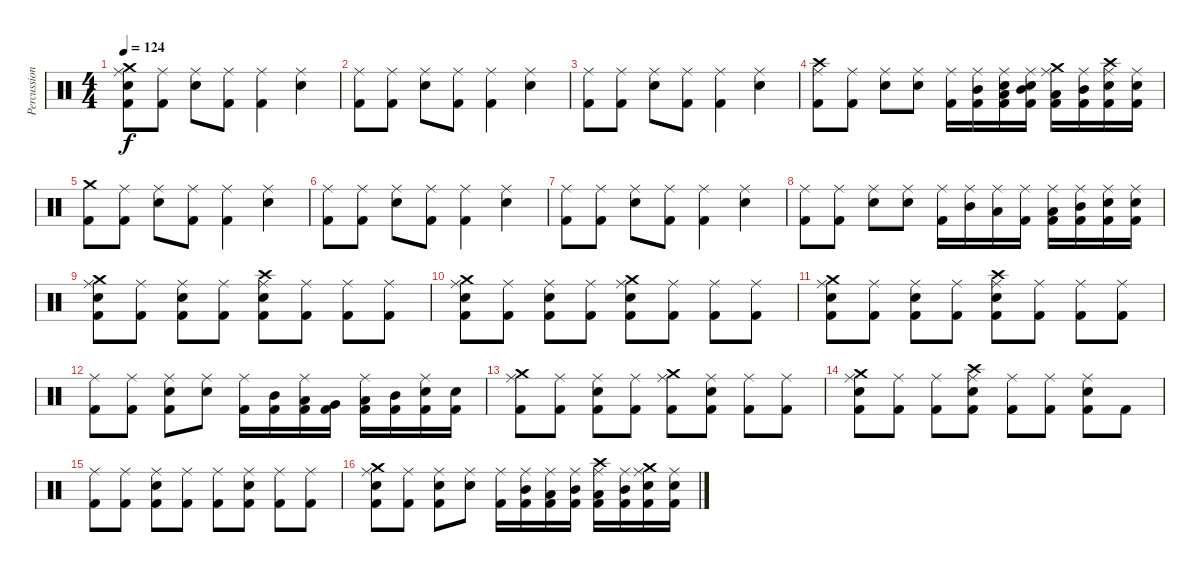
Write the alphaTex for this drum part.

\track ("Percussions" "Percussion") {instrument percussion}
\staff {score}
\articulation defaults
\ts (4 4)
\tempo 124
\clef neutral
\ks c
("Kick (hit) 2" "Electric Snare (hit)" "Crash medium (hit)" "Ride (middle)").8{dy f} ("Kick (hit) 2" "Ride (middle)").8 ("Electric Snare (hit)" "Ride (middle)").8 ("Kick (hit) 2" "Ride (middle)").8 ("Kick (hit) 2" "Ride (middle)").4 ("Electric Snare (hit)" "Ride (middle)").4 |
("Kick (hit) 2" "Ride (middle)").8 ("Kick (hit) 2" "Ride (middle)").8 ("Electric Snare (hit)" "Ride (middle)").8 ("Kick (hit) 2" "Ride (middle)").8 ("Kick (hit) 2" "Ride (middle)").4 ("Electric Snare (hit)" "Ride (middle)").4 |
("Kick (hit) 2" "Ride (middle)").8 ("Kick (hit) 2" "Ride (middle)").8 ("Electric Snare (hit)" "Ride (middle)").8 ("Kick (hit) 2" "Ride (middle)").8 ("Kick (hit) 2" "Ride (middle)").4 ("Electric Snare (hit)" "Ride (middle)").4 |
("Kick (hit) 2" "Crash high (hit)" "Ride (middle)").8 ("Kick (hit) 2" "Ride (middle)").8 ("Electric Snare (hit)" "Ride (middle)").8 ("Electric Snare (hit)" "Ride (middle)").8 ("Kick (hit) 2" "Ride (middle)").16 ("Kick (hit) 2" "Mid Tom (hit)" "Ride (middle)").16 ("Low Tom (hit)" "Kick (hit) 2" "Electric Snare (hit)" "Ride (middle)").16 ("Kick (hit) 2" "Mid Tom (hit)" "Electric Snare (hit)" "Ride (middle)").16 ("Kick (hit) 2" "Low Tom (hit)" "Crash medium (hit)" "Ride (middle)").16 ("Kick (hit) 2" "Mid Tom (hit)" "Ride (middle)").16 ("Kick (hit) 2" "Electric Snare (hit)" "Crash high (hit)" "Ride (middle)").16 ("Kick (hit) 2" "Electric Snare (hit)" "Ride (middle)").16 |
("Kick (hit) 2" "Crash medium (hit)").8 ("Kick (hit) 2" "Ride (middle)").8 ("Electric Snare (hit)" "Ride (middle)").8 ("Kick (hit) 2" "Ride (middle)").8 ("Kick (hit) 2" "Ride (middle)").4 ("Electric Snare (hit)" "Ride (middle)").4 |
("Kick (hit) 2" "Ride (middle)").8 ("Kick (hit) 2" "Ride (middle)").8 ("Electric Snare (hit)" "Ride (middle)").8 ("Kick (hit) 2" "Ride (middle)").8 ("Kick (hit) 2" "Ride (middle)").4 ("Electric Snare (hit)" "Ride (middle)").4 |
("Kick (hit) 2" "Ride (middle)").8 ("Kick (hit) 2" "Ride (middle)").8 ("Electric Snare (hit)" "Ride (middle)").8 ("Kick (hit) 2" "Ride (middle)").8 ("Kick (hit) 2" "Ride (middle)").4 ("Electric Snare (hit)" "Ride (middle)").4 |
("Kick (hit) 2" "Ride (middle)").8 ("Kick (hit) 2" "Ride (middle)").8 ("Electric Snare (hit)" "Ride (middle)").8 ("Electric Snare (hit)" "Ride (middle)").8 ("Kick (hit) 2" "Ride (middle)").16 ("Mid Tom (hit)" "Ride (middle)").16 ("Low Tom (hit)" "Ride (middle)").16 ("Kick (hit) 2" "Ride (middle)").16 ("Kick (hit) 2" "Low Tom (hit)" "Ride (middle)").16 ("Kick (hit) 2" "Mid Tom (hit)" "Ride (middle)").16 ("Kick (hit) 2" "Electric Snare (hit)" "Ride (middle)").16 ("Kick (hit) 2" "Electric Snare (hit)" "Ride (middle)").16 |
("Kick (hit) 2" "Electric Snare (hit)" "Crash medium (hit)" "Ride (middle)").8 ("Kick (hit) 2" "Ride (middle)").8 ("Kick (hit) 2" "Electric Snare (hit)" "Ride (middle)").8 ("Kick (hit) 2" "Ride (middle)").8 ("Kick (hit) 2" "Electric Snare (hit)" "Crash high (hit)" "Ride (middle)").8 ("Kick (hit) 2" "Ride (middle)").8 ("Kick (hit) 2" "Ride (middle)").8 ("Kick (hit) 2" "Ride (middle)").8 |
("Kick (hit) 2" "Electric Snare (hit)" "Crash medium (hit)" "Ride (middle)").8 ("Kick (hit) 2" "Ride (middle)").8 ("Kick (hit) 2" "Electric Snare (hit)" "Ride (middle)").8 ("Kick (hit) 2" "Ride (middle)").8 ("Kick (hit) 2" "Electric Snare (hit)" "Crash medium (hit)" "Ride (middle)").8 ("Kick (hit) 2" "Ride (middle)").8 ("Kick (hit) 2" "Ride (middle)").8 ("Kick (hit) 2" "Ride (middle)").8 |
("Kick (hit) 2" "Electric Snare (hit)" "Crash medium (hit)" "Ride (middle)").8 ("Kick (hit) 2" "Ride (middle)").8 ("Kick (hit) 2" "Electric Snare (hit)" "Ride (middle)").8 ("Kick (hit) 2" "Ride (middle)").8 ("Kick (hit) 2" "Electric Snare (hit)" "Crash high (hit)" "Ride (middle)").8 ("Kick (hit) 2" "Ride (middle)").8 ("Kick (hit) 2" "Ride (middle)").8 ("Kick (hit) 2" "Ride (middle)").8 |
("Kick (hit) 2" "Ride (middle)").8 ("Kick (hit) 2" "Ride (middle)").8 ("Kick (hit) 2" "Electric Snare (hit)" "Ride (middle)").8 ("Electric Snare (hit)" "Ride (middle)").8 ("Kick (hit) 2" "Ride (middle)").16 ("Kick (hit) 2" "Mid Tom (hit)").16 ("Low Tom (hit)" "Kick (hit) 2" "Ride (middle)").16 ("Kick (hit) 2" "Very Low Tom (hit)").16 ("Kick (hit) 2" "Low Tom (hit)" "Ride (middle)").16 ("Kick (hit) 2" "Mid Tom (hit)").16 ("Kick (hit) 2" "Electric Snare (hit)" "Ride (middle)").16 ("Kick (hit) 2" "Electric Snare (hit)").16 |
("Kick (hit) 2" "Crash medium (hit)" "Ride (middle)").8 ("Kick (hit) 2" "Ride (middle)").8 ("Kick (hit) 2" "Electric Snare (hit)" "Ride (middle)").8 ("Kick (hit) 2" "Ride (middle)").8 ("Kick (hit) 2" "Crash medium (hit)" "Ride (middle)").8 ("Kick (hit) 2" "Electric Snare (hit)" "Ride (middle)").8 ("Kick (hit) 2" "Ride (middle)").8 ("Kick (hit) 2" "Ride (middle)").8 |
("Kick (hit) 2" "Electric Snare (hit)" "Crash medium (hit)" "Ride (middle)").8 ("Kick (hit) 2" "Ride (middle)").8 ("Kick (hit) 2" "Ride (middle)").8 ("Kick (hit) 2" "Electric Snare (hit)" "Crash high (hit)" "Ride (middle)").8 ("Kick (hit) 2" "Ride (middle)").8 ("Kick (hit) 2" "Ride (middle)").8 ("Kick (hit) 2" "Electric Snare (hit)" "Ride (middle)").8 "Kick (hit) 2".8 |
("Kick (hit) 2" "Ride (middle)").8 ("Kick (hit) 2" "Ride (middle)").8 ("Kick (hit) 2" "Electric Snare (hit)" "Ride (middle)").8 ("Kick (hit) 2" "Ride (middle)").8 ("Kick (hit) 2" "Ride (middle)").8 ("Kick (hit) 2" "Electric Snare (hit)" "Ride (middle)").8 ("Kick (hit) 2" "Ride (middle)").8 ("Kick (hit) 2" "Ride (middle)").8 |
("Kick (hit) 2" "Electric Snare (hit)" "Crash medium (hit)" "Ride (middle)").8 ("Kick (hit) 2" "Ride (middle)").8 ("Kick (hit) 2" "Electric Snare (hit)" "Ride (middle)").8 ("Electric Snare (hit)" "Ride (middle)").8 ("Kick (hit) 2" "Ride (middle)").16 ("Kick (hit) 2" "Mid Tom (hit)" "Ride (middle)").16 ("Low Tom (hit)" "Kick (hit) 2" "Ride (middle)").16 ("Kick (hit) 2" "Mid Tom (hit)" "Ride (middle)").16 ("Kick (hit) 2" "Low Tom (hit)" "Crash high (hit)" "Ride (middle)").16 ("Kick (hit) 2" "Mid Tom (hit)" "Ride (middle)").16 ("Kick (hit) 2" "Electric Snare (hit)" "Crash medium (hit)" "Ride (middle)").16 ("Kick (hit) 2" "Electric Snare (hit)" "Ride (middle)").16
